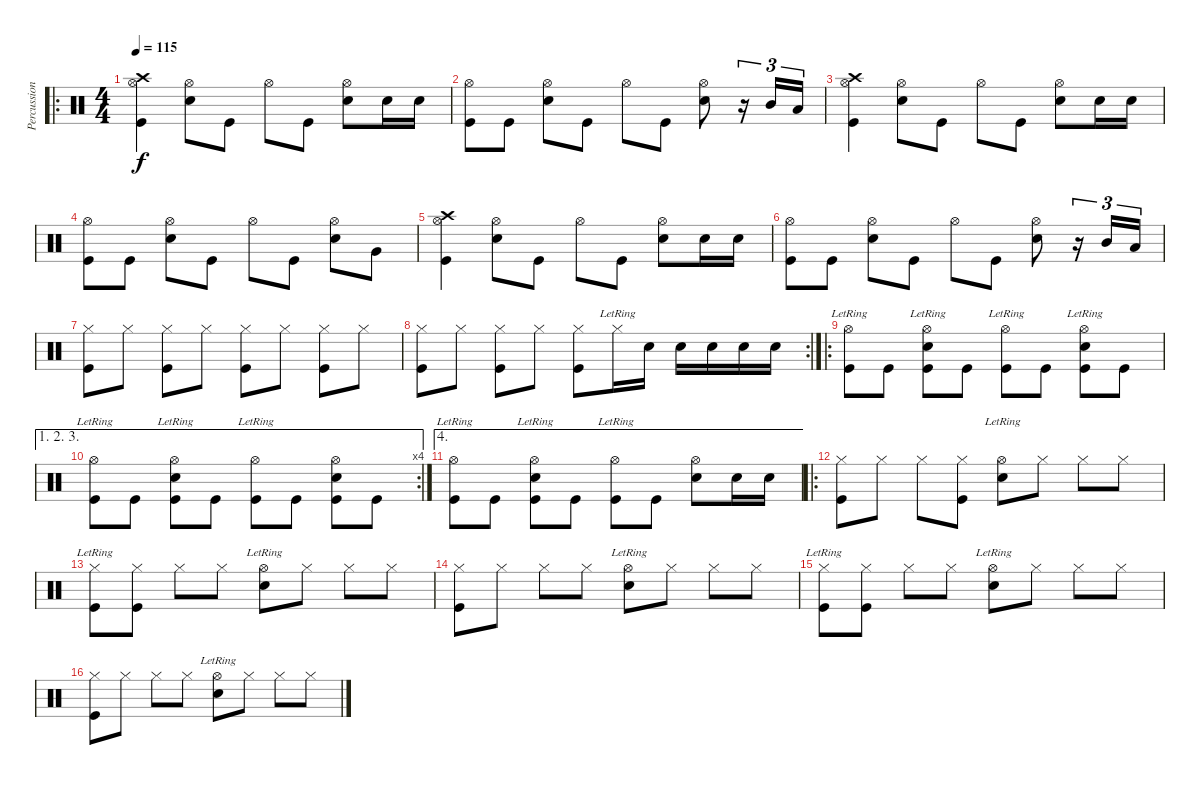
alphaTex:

\track ("Percussion" "Percussion") {instrument percussion}
\staff {score}
\articulation defaults
\ro
\ts (4 4)
\tempo 115
\clef neutral
\ks c
("Hi-Hat (open)" "Crash high (hit)" "Kick (hit)").4{dy f} ("Hi-Hat (open)" "Snare (hit) 2").8 "Kick (hit)".8 "Hi-Hat (open)".8 "Kick (hit)".8 ("Hi-Hat (open)" "Snare (hit) 2").8 "Snare (hit) 2".16 "Snare (hit) 2".16 |
("Hi-Hat (open)" "Kick (hit)").8 "Kick (hit)".8 ("Hi-Hat (open)" "Snare (hit) 2").8 "Kick (hit)".8 "Hi-Hat (open)".8 "Kick (hit)".8 ("Hi-Hat (open)" "Snare (hit) 2").8 r.16{tu (3 2)} "Mid Tom (hit)".16{tu (3 2)} "Low Tom (hit)".16{tu (3 2)} |
("Hi-Hat (open)" "Crash high (hit)" "Kick (hit)").4 ("Hi-Hat (open)" "Snare (hit) 2").8 "Kick (hit)".8 "Hi-Hat (open)".8 "Kick (hit)".8 ("Hi-Hat (open)" "Snare (hit) 2").8 "Snare (hit) 2".16 "Snare (hit) 2".16 |
("Hi-Hat (open)" "Kick (hit)").8 "Kick (hit)".8 ("Hi-Hat (open)" "Snare (hit) 2").8 "Kick (hit)".8 "Hi-Hat (open)".8 "Kick (hit)".8 ("Hi-Hat (open)" "Snare (hit) 2").8 "Very Low Tom (hit)".8 |
("Hi-Hat (open)" "Crash high (hit)" "Kick (hit)").4 ("Hi-Hat (open)" "Snare (hit) 2").8 "Kick (hit)".8 "Hi-Hat (open)".8 "Kick (hit)".8 ("Hi-Hat (open)" "Snare (hit) 2").8 "Snare (hit) 2".16 "Snare (hit) 2".16 |
("Hi-Hat (open)" "Kick (hit)").8 "Kick (hit)".8 ("Hi-Hat (open)" "Snare (hit) 2").8 "Kick (hit)".8 "Hi-Hat (open)".8 "Kick (hit)".8 ("Hi-Hat (open)" "Snare (hit) 2").8 r.16{tu (3 2)} "Mid Tom (hit)".16{tu (3 2)} "Low Tom (hit)".16{tu (3 2)} |
("Hi-Hat (closed)" "Kick (hit)").8 "Hi-Hat (closed)".8 ("Hi-Hat (closed)" "Kick (hit)").8 "Hi-Hat (closed)".8 ("Hi-Hat (closed)" "Kick (hit)").8 "Hi-Hat (closed)".8 ("Hi-Hat (closed)" "Kick (hit)").8 "Hi-Hat (closed)".8 |
\rc 2
("Hi-Hat (closed)" "Kick (hit)").8 "Hi-Hat (closed)".8 ("Hi-Hat (closed)" "Kick (hit)").8 "Hi-Hat (closed)".8 ("Hi-Hat (closed)" "Kick (hit)").8 "Hi-Hat (closed)"{lr}.16 "Snare (hit) 2".16 "Snare (hit) 2".16 "Snare (hit) 2".16 "Snare (hit) 2".16 "Snare (hit) 2".16 |
\ro
("Hi-Hat (open)"{lr} "Kick (hit)").8 "Kick (hit)".8 ("Hi-Hat (open)"{lr} "Snare (hit) 2" "Kick (hit)").8 "Kick (hit)".8 ("Hi-Hat (open)"{lr} "Kick (hit)").8 "Kick (hit)".8 ("Hi-Hat (open)"{lr} "Snare (hit) 2" "Kick (hit)").8 "Kick (hit)".8 |
\ae (1 2 3)
\rc 4
("Hi-Hat (open)"{lr} "Kick (hit)").8 "Kick (hit)".8 ("Hi-Hat (open)"{lr} "Snare (hit) 2" "Kick (hit)").8 "Kick (hit)".8 ("Hi-Hat (open)"{lr} "Kick (hit)").8 "Kick (hit)".8 ("Hi-Hat (open)" "Snare (hit) 2" "Kick (hit)").8 "Kick (hit)".8 |
\ae 4
("Hi-Hat (open)"{lr} "Kick (hit)").8 "Kick (hit)".8 ("Hi-Hat (open)"{lr} "Snare (hit) 2" "Kick (hit)").8 "Kick (hit)".8 ("Hi-Hat (open)"{lr} "Kick (hit)").8 "Kick (hit)".8 ("Hi-Hat (open)" "Snare (hit) 2").8 "Snare (hit) 2".16 "Snare (hit) 2".16 |
\ro
("Hi-Hat (closed)" "Kick (hit)").8 "Hi-Hat (closed)".8 "Hi-Hat (closed)".8 ("Hi-Hat (closed)" "Kick (hit)").8 ("Hi-Hat (open)"{lr} "Snare (hit) 2").8 "Hi-Hat (closed)".8 "Hi-Hat (closed)".8 "Hi-Hat (closed)".8 |
("Hi-Hat (closed)"{lr} "Kick (hit)").8 ("Hi-Hat (closed)" "Kick (hit)").8 "Hi-Hat (closed)".8 "Hi-Hat (closed)".8 ("Hi-Hat (open)"{lr} "Snare (hit) 2").8 "Hi-Hat (closed)".8 "Hi-Hat (closed)".8 "Hi-Hat (closed)".8 |
("Hi-Hat (closed)" "Kick (hit)").8 "Hi-Hat (closed)".8 "Hi-Hat (closed)".8 "Hi-Hat (closed)".8 ("Hi-Hat (open)"{lr} "Snare (hit) 2").8 "Hi-Hat (closed)".8 "Hi-Hat (closed)".8 "Hi-Hat (closed)".8 |
("Hi-Hat (closed)"{lr} "Kick (hit)").8 ("Hi-Hat (closed)" "Kick (hit)").8 "Hi-Hat (closed)".8 "Hi-Hat (closed)".8 ("Hi-Hat (open)"{lr} "Snare (hit) 2").8 "Hi-Hat (closed)".8 "Hi-Hat (closed)".8 "Hi-Hat (closed)".8 |
("Hi-Hat (closed)" "Kick (hit)").8 "Hi-Hat (closed)".8 "Hi-Hat (closed)".8 "Hi-Hat (closed)".8 ("Hi-Hat (open)"{lr} "Snare (hit) 2").8 "Hi-Hat (closed)".8 "Hi-Hat (closed)".8 "Hi-Hat (closed)".8
